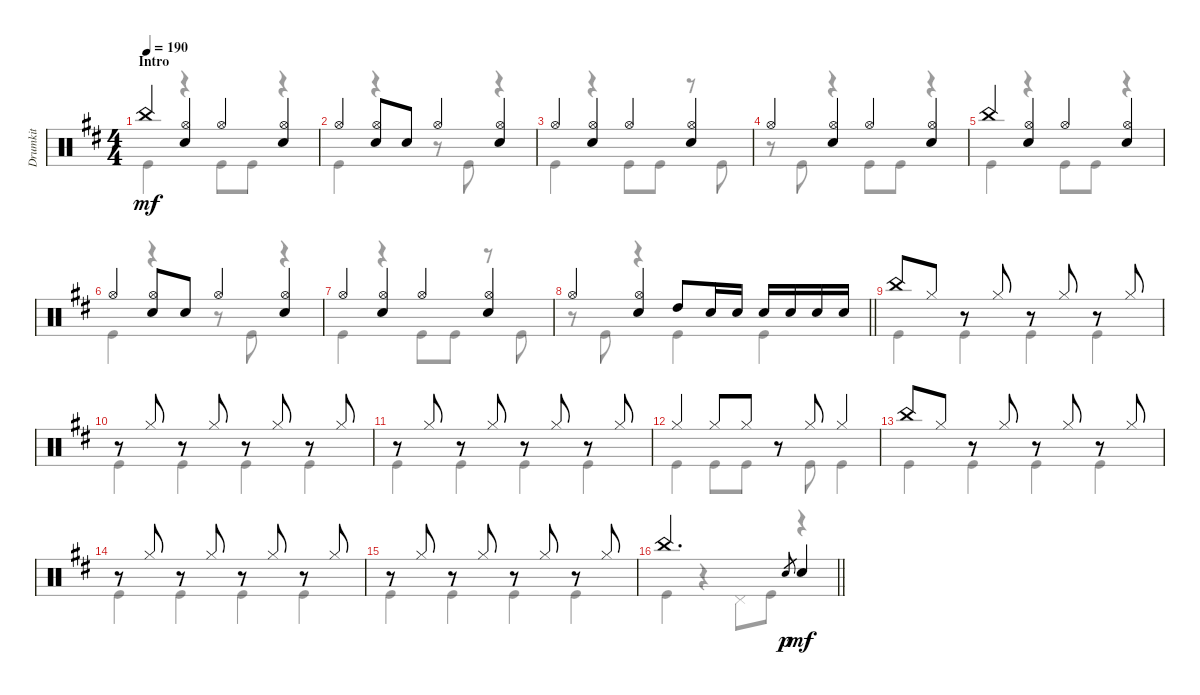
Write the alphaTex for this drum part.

\track ("Drumkit" "Drumkit") {instrument percussion}
\staff {score}
\articulation defaults
\voice
\ts (4 4)
\section ("" "Intro")
\tempo 190
\clef neutral
\ks d "China (hit)".4{dy mf}
("Snare (hit) 2" "Hi-Hat (open)").4 "Hi-Hat (open)".4 ("Hi-Hat (open)" "Snare (hit) 2").4 |
"Hi-Hat (open)".4 ("Hi-Hat (open)" "Snare (hit) 2").8 "Snare (hit) 2".8 "Hi-Hat (open)".4 ("Hi-Hat (open)" "Snare (hit) 2").4 |
"Hi-Hat (open)".4 ("Hi-Hat (open)" "Snare (hit) 2").4 "Hi-Hat (open)".4 ("Snare (hit) 2" "Hi-Hat (open)").4 |
"Hi-Hat (open)".4 ("Hi-Hat (open)" "Snare (hit) 2").4 "Hi-Hat (open)".4 ("Hi-Hat (open)" "Snare (hit) 2").4 |
"China (hit)".4 ("Snare (hit) 2" "Hi-Hat (open)").4 "Hi-Hat (open)".4 ("Snare (hit) 2" "Hi-Hat (open)").4 |
"Hi-Hat (open)".4 ("Hi-Hat (open)" "Snare (hit) 2").8 "Snare (hit) 2".8 "Hi-Hat (open)".4 ("Hi-Hat (open)" "Snare (hit) 2").4 |
"Hi-Hat (open)".4 ("Hi-Hat (open)" "Snare (hit) 2").4 "Hi-Hat (open)".4 ("Snare (hit) 2" "Hi-Hat (open)").4 |
\barLineRight lightlight "Hi-Hat (open)".4
("Hi-Hat (open)" "Snare (hit) 2").4 "High Tom (hit)".8 "Snare (hit) 2".16 "Snare (hit) 2".16 "Snare (hit) 2".16 "Snare (hit) 2".16 "Snare (hit) 2".16 "Snare (hit) 2".16 |
\section ("" "")
"China (hit)".8 "Hi-Hat (closed)".8 r.8 "Hi-Hat (closed)".8 r.8 "Hi-Hat (closed)".8 r.8 "Hi-Hat (closed)".8 |
r.8 "Hi-Hat (closed)".8 r.8 "Hi-Hat (closed)".8 r.8 "Hi-Hat (closed)".8 r.8 "Hi-Hat (closed)".8 |
r.8 "Hi-Hat (closed)".8 r.8 "Hi-Hat (closed)".8 r.8 "Hi-Hat (closed)".8 r.8 "Hi-Hat (closed)".8 |
"Hi-Hat (closed)".4 "Hi-Hat (closed)".8 "Hi-Hat (closed)".8 r.8 "Hi-Hat (closed)".8 "Hi-Hat (closed)".4 |
"China (hit)".8 "Hi-Hat (closed)".8 r.8 "Hi-Hat (closed)".8 r.8 "Hi-Hat (closed)".8 r.8 "Hi-Hat (closed)".8 |
r.8 "Hi-Hat (closed)".8 r.8 "Hi-Hat (closed)".8 r.8 "Hi-Hat (closed)".8 r.8 "Hi-Hat (closed)".8 |
r.8 "Hi-Hat (closed)".8 r.8 "Hi-Hat (closed)".8 r.8 "Hi-Hat (closed)".8 r.8 "Hi-Hat (closed)".8 |
\barLineRight lightlight "China (hit)".2{d} "Snare (hit)".8{gr dy p} "Snare (hit) 2".4{dy mf}
\voice
\clef neutral
\ottava regular
\simile none
\ks d "Kick (hit)".4{dy mf}
r.4 "Kick (hit)".8 "Kick (hit)".8 r.4 |
"Kick (hit)".4 r.4 r.8 "Kick (hit)".8 r.4 |
"Kick (hit)".4 r.4 "Kick (hit)".8 "Kick (hit)".8 r.8 "Kick (hit)".8 |
r.8 "Kick (hit)".8 r.4 "Kick (hit)".8 "Kick (hit)".8 r.4 |
"Kick (hit)".4 r.4 "Kick (hit)".8 "Kick (hit)".8 r.4 |
"Kick (hit)".4 r.4 r.8 "Kick (hit)".8 r.4 |
"Kick (hit)".4 r.4 "Kick (hit)".8 "Kick (hit)".8 r.8 "Kick (hit)".8 |
\barLineRight lightlight
r.8 "Kick (hit)".8 r.4 "Kick (hit)".4 "Kick (hit)".4 |
"Kick (hit)".4 "Kick (hit)".4 "Kick (hit)".4 "Kick (hit)".4 |
"Kick (hit)".4 "Kick (hit)".4 "Kick (hit)".4 "Kick (hit)".4 |
"Kick (hit)".4 "Kick (hit)".4 "Kick (hit)".4 "Kick (hit)".4 |
"Kick (hit)".4 "Kick (hit)".8 "Kick (hit)".8 r.8 "Kick (hit)".8 "Kick (hit)".4 |
"Kick (hit)".4 "Kick (hit)".4 "Kick (hit)".4 "Kick (hit)".4 |
"Kick (hit)".4 "Kick (hit)".4 "Kick (hit)".4 "Kick (hit)".4 |
"Kick (hit)".4 "Kick (hit)".4 "Kick (hit)".4 "Kick (hit)".4 |
\barLineRight lightlight "Kick (hit)".4
r.4 "Pedal Hi-Hat (hit)".8 "Kick (hit)".8 r.4
